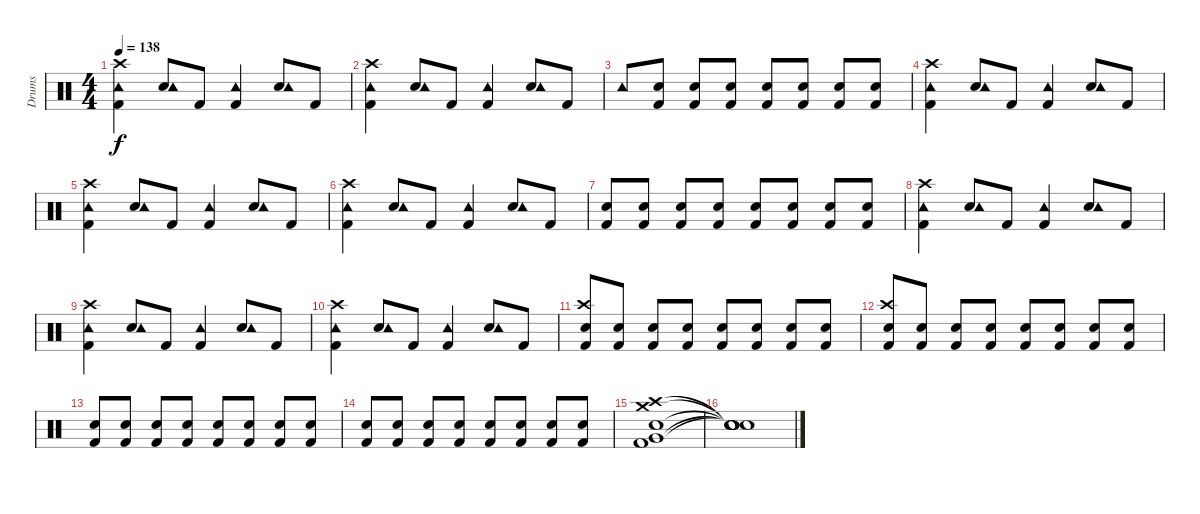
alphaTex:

\track ("Drums" "Drums") {instrument percussion}
\staff {score}
\articulation defaults
\ts (4 4)
\tempo 138
\clef neutral
\ks c
("Kick (hit) 2" "Tambourine (hit)" "Crash high (hit)").4{dy f} ("Snare (hit) 2" "Tambourine (hit)").8 "Kick (hit) 2".8 ("Kick (hit) 2" "Tambourine (hit)").4 ("Snare (hit) 2" "Tambourine (hit)").8 "Kick (hit) 2".8 |
("Kick (hit) 2" "Tambourine (hit)" "Crash high (hit)").4 ("Snare (hit) 2" "Tambourine (hit)").8 "Kick (hit) 2".8 ("Kick (hit) 2" "Tambourine (hit)").4 ("Snare (hit) 2" "Tambourine (hit)").8 "Kick (hit) 2".8 |
"Tambourine (hit)".8 ("Snare (hit) 2" "Kick (hit) 2").8 ("Snare (hit) 2" "Kick (hit) 2").8 ("Snare (hit) 2" "Kick (hit) 2").8 ("Snare (hit) 2" "Kick (hit) 2").8 ("Snare (hit) 2" "Kick (hit) 2").8 ("Snare (hit) 2" "Kick (hit) 2").8 ("Snare (hit) 2" "Kick (hit) 2").8 |
("Kick (hit) 2" "Tambourine (hit)" "Crash high (hit)").4 ("Snare (hit) 2" "Tambourine (hit)").8 "Kick (hit) 2".8 ("Kick (hit) 2" "Tambourine (hit)").4 ("Snare (hit) 2" "Tambourine (hit)").8 "Kick (hit) 2".8 |
("Kick (hit) 2" "Tambourine (hit)" "Crash high (hit)").4 ("Snare (hit) 2" "Tambourine (hit)").8 "Kick (hit) 2".8 ("Kick (hit) 2" "Tambourine (hit)").4 ("Snare (hit) 2" "Tambourine (hit)").8 "Kick (hit) 2".8 |
("Kick (hit) 2" "Tambourine (hit)" "Crash high (hit)").4 ("Snare (hit) 2" "Tambourine (hit)").8 "Kick (hit) 2".8 ("Kick (hit) 2" "Tambourine (hit)").4 ("Snare (hit) 2" "Tambourine (hit)").8 "Kick (hit) 2".8 |
("Snare (hit) 2" "Kick (hit) 2").8 ("Snare (hit) 2" "Kick (hit) 2").8 ("Snare (hit) 2" "Kick (hit) 2").8 ("Snare (hit) 2" "Kick (hit) 2").8 ("Snare (hit) 2" "Kick (hit) 2").8 ("Snare (hit) 2" "Kick (hit) 2").8 ("Snare (hit) 2" "Kick (hit) 2").8 ("Snare (hit) 2" "Kick (hit) 2").8 |
("Kick (hit) 2" "Tambourine (hit)" "Crash high (hit)").4 ("Snare (hit) 2" "Tambourine (hit)").8 "Kick (hit) 2".8 ("Kick (hit) 2" "Tambourine (hit)").4 ("Snare (hit) 2" "Tambourine (hit)").8 "Kick (hit) 2".8 |
("Kick (hit) 2" "Tambourine (hit)" "Crash high (hit)").4 ("Snare (hit) 2" "Tambourine (hit)").8 "Kick (hit) 2".8 ("Kick (hit) 2" "Tambourine (hit)").4 ("Snare (hit) 2" "Tambourine (hit)").8 "Kick (hit) 2".8 |
("Kick (hit) 2" "Tambourine (hit)" "Crash high (hit)").4 ("Snare (hit) 2" "Tambourine (hit)").8 "Kick (hit) 2".8 ("Kick (hit) 2" "Tambourine (hit)").4 ("Snare (hit) 2" "Tambourine (hit)").8 "Kick (hit) 2".8 |
("Snare (hit) 2" "Kick (hit) 2" "Crash high (hit)").8 ("Snare (hit) 2" "Kick (hit) 2").8 ("Snare (hit) 2" "Kick (hit) 2").8 ("Snare (hit) 2" "Kick (hit) 2").8 ("Snare (hit) 2" "Kick (hit) 2").8 ("Snare (hit) 2" "Kick (hit) 2").8 ("Snare (hit) 2" "Kick (hit) 2").8 ("Snare (hit) 2" "Kick (hit) 2").8 |
("Snare (hit) 2" "Kick (hit) 2" "Crash high (hit)").8 ("Snare (hit) 2" "Kick (hit) 2").8 ("Snare (hit) 2" "Kick (hit) 2").8 ("Snare (hit) 2" "Kick (hit) 2").8 ("Snare (hit) 2" "Kick (hit) 2").8 ("Snare (hit) 2" "Kick (hit) 2").8 ("Snare (hit) 2" "Kick (hit) 2").8 ("Snare (hit) 2" "Kick (hit) 2").8 |
("Snare (hit) 2" "Kick (hit) 2").8 ("Snare (hit) 2" "Kick (hit) 2").8 ("Snare (hit) 2" "Kick (hit) 2").8 ("Snare (hit) 2" "Kick (hit) 2").8 ("Snare (hit) 2" "Kick (hit) 2").8 ("Snare (hit) 2" "Kick (hit) 2").8 ("Snare (hit) 2" "Kick (hit) 2").8 ("Snare (hit) 2" "Kick (hit) 2").8 |
("Snare (hit) 2" "Kick (hit) 2").8 ("Snare (hit) 2" "Kick (hit) 2").8 ("Snare (hit) 2" "Kick (hit) 2").8 ("Snare (hit) 2" "Kick (hit) 2").8 ("Snare (hit) 2" "Kick (hit) 2").8 ("Snare (hit) 2" "Kick (hit) 2").8 ("Snare (hit) 2" "Kick (hit) 2").8 ("Snare (hit) 2" "Kick (hit) 2").8 |
("Kick (hit) 2" "Snare (hit) 2" "Very Low Tom (hit)" "Crash high (hit)" "Crash medium (hit)").1 |
("Snare (hit)"{t} "Snare (hit)"{t} "Snare (hit)"{t} "Snare (hit)"{t} "Snare (hit)"{t}).1
